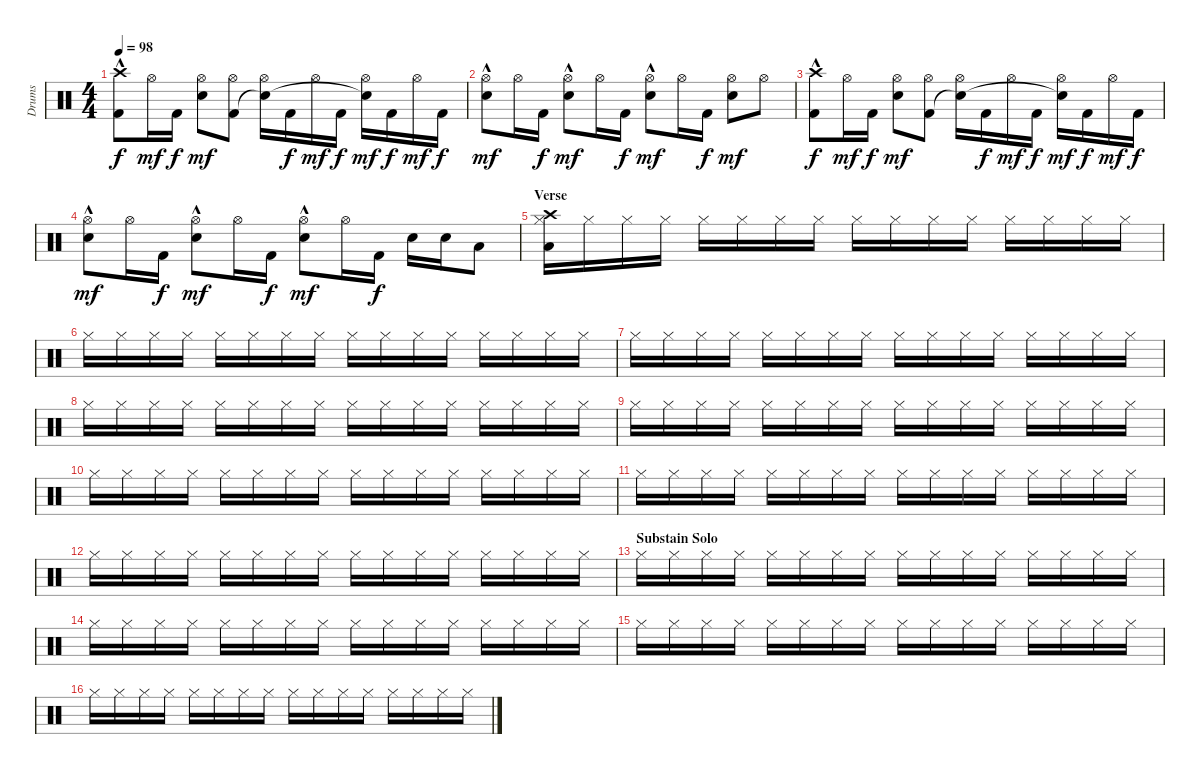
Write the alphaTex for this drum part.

\track ("Drums" "Drums") {instrument percussion}
\staff {score}
\articulation defaults
\ts (4 4)
\tempo 98
\clef neutral
\ks c
("Crash high (hit)" "Kick (hit) 2"{hac}).8{dy f} "Hi-Hat (open)".16{dy mf} "Kick (hit) 2".16{dy f} ("Hi-Hat (open)" "Electric Snare (hit)").8{dy mf} ("Hi-Hat (open)" "Kick (hit) 2").8 ("Hi-Hat (open)" "Snare (hit)"{t}).16 "Kick (hit) 2".16{dy f} "Hi-Hat (open)".16{dy mf} "Kick (hit) 2".16{dy f} ("Hi-Hat (open)" "Snare (hit)"{t}).16{dy mf} "Kick (hit) 2".16{dy f} "Hi-Hat (open)".16{dy mf} "Kick (hit) 2".16{dy f} |
("Hi-Hat (open)" "Electric Snare (hit)"{hac}).8{dy mf} "Hi-Hat (open)".16 "Kick (hit) 2".16{dy f} ("Hi-Hat (open)" "Electric Snare (hit)"{hac}).8{dy mf} "Hi-Hat (open)".16 "Kick (hit) 2".16{dy f} ("Hi-Hat (open)" "Electric Snare (hit)"{hac}).8{dy mf} "Hi-Hat (open)".16 "Kick (hit) 2".16{dy f} ("Hi-Hat (open)" "Electric Snare (hit)").8{dy mf} "Hi-Hat (open)".8 |
("Crash high (hit)" "Kick (hit) 2"{hac}).8{dy f} "Hi-Hat (open)".16{dy mf} "Kick (hit) 2".16{dy f} ("Hi-Hat (open)" "Electric Snare (hit)").8{dy mf} ("Hi-Hat (open)" "Kick (hit) 2").8 ("Hi-Hat (open)" "Snare (hit)"{t}).16 "Kick (hit) 2".16{dy f} "Hi-Hat (open)".16{dy mf} "Kick (hit) 2".16{dy f} ("Hi-Hat (open)" "Snare (hit)"{t}).16{dy mf} "Kick (hit) 2".16{dy f} "Hi-Hat (open)".16{dy mf} "Kick (hit) 2".16{dy f} |
("Hi-Hat (open)" "Electric Snare (hit)"{hac}).8{dy mf} "Hi-Hat (open)".16 "Kick (hit) 2".16{dy f} ("Hi-Hat (open)" "Electric Snare (hit)"{hac}).8{dy mf} "Hi-Hat (open)".16 "Kick (hit) 2".16{dy f} ("Hi-Hat (open)" "Electric Snare (hit)"{hac}).8{dy mf} "Hi-Hat (open)".16 "Kick (hit) 2".16{dy f} "Electric Snare (hit)".16 "Electric Snare (hit)".16 "Low Tom (hit)".8 |
\section ("" "Verse")
("Crash high (hit)" "Low Floor Tom (hit)" "Hi-Hat (closed)").16 "Hi-Hat (closed)".16 "Hi-Hat (closed)".16 "Hi-Hat (closed)".16 "Hi-Hat (closed)".16 "Hi-Hat (closed)".16 "Hi-Hat (closed)".16 "Hi-Hat (closed)".16 "Hi-Hat (closed)".16 "Hi-Hat (closed)".16 "Hi-Hat (closed)".16 "Hi-Hat (closed)".16 "Hi-Hat (closed)".16 "Hi-Hat (closed)".16 "Hi-Hat (closed)".16 "Hi-Hat (closed)".16 |
"Hi-Hat (closed)".16 "Hi-Hat (closed)".16 "Hi-Hat (closed)".16 "Hi-Hat (closed)".16 "Hi-Hat (closed)".16 "Hi-Hat (closed)".16 "Hi-Hat (closed)".16 "Hi-Hat (closed)".16 "Hi-Hat (closed)".16 "Hi-Hat (closed)".16 "Hi-Hat (closed)".16 "Hi-Hat (closed)".16 "Hi-Hat (closed)".16 "Hi-Hat (closed)".16 "Hi-Hat (closed)".16 "Hi-Hat (closed)".16 |
"Hi-Hat (closed)".16 "Hi-Hat (closed)".16 "Hi-Hat (closed)".16 "Hi-Hat (closed)".16 "Hi-Hat (closed)".16 "Hi-Hat (closed)".16 "Hi-Hat (closed)".16 "Hi-Hat (closed)".16 "Hi-Hat (closed)".16 "Hi-Hat (closed)".16 "Hi-Hat (closed)".16 "Hi-Hat (closed)".16 "Hi-Hat (closed)".16 "Hi-Hat (closed)".16 "Hi-Hat (closed)".16 "Hi-Hat (closed)".16 |
"Hi-Hat (closed)".16 "Hi-Hat (closed)".16 "Hi-Hat (closed)".16 "Hi-Hat (closed)".16 "Hi-Hat (closed)".16 "Hi-Hat (closed)".16 "Hi-Hat (closed)".16 "Hi-Hat (closed)".16 "Hi-Hat (closed)".16 "Hi-Hat (closed)".16 "Hi-Hat (closed)".16 "Hi-Hat (closed)".16 "Hi-Hat (closed)".16 "Hi-Hat (closed)".16 "Hi-Hat (closed)".16 "Hi-Hat (closed)".16 |
"Hi-Hat (closed)".16 "Hi-Hat (closed)".16 "Hi-Hat (closed)".16 "Hi-Hat (closed)".16 "Hi-Hat (closed)".16 "Hi-Hat (closed)".16 "Hi-Hat (closed)".16 "Hi-Hat (closed)".16 "Hi-Hat (closed)".16 "Hi-Hat (closed)".16 "Hi-Hat (closed)".16 "Hi-Hat (closed)".16 "Hi-Hat (closed)".16 "Hi-Hat (closed)".16 "Hi-Hat (closed)".16 "Hi-Hat (closed)".16 |
"Hi-Hat (closed)".16 "Hi-Hat (closed)".16 "Hi-Hat (closed)".16 "Hi-Hat (closed)".16 "Hi-Hat (closed)".16 "Hi-Hat (closed)".16 "Hi-Hat (closed)".16 "Hi-Hat (closed)".16 "Hi-Hat (closed)".16 "Hi-Hat (closed)".16 "Hi-Hat (closed)".16 "Hi-Hat (closed)".16 "Hi-Hat (closed)".16 "Hi-Hat (closed)".16 "Hi-Hat (closed)".16 "Hi-Hat (closed)".16 |
"Hi-Hat (closed)".16 "Hi-Hat (closed)".16 "Hi-Hat (closed)".16 "Hi-Hat (closed)".16 "Hi-Hat (closed)".16 "Hi-Hat (closed)".16 "Hi-Hat (closed)".16 "Hi-Hat (closed)".16 "Hi-Hat (closed)".16 "Hi-Hat (closed)".16 "Hi-Hat (closed)".16 "Hi-Hat (closed)".16 "Hi-Hat (closed)".16 "Hi-Hat (closed)".16 "Hi-Hat (closed)".16 "Hi-Hat (closed)".16 |
"Hi-Hat (closed)".16 "Hi-Hat (closed)".16 "Hi-Hat (closed)".16 "Hi-Hat (closed)".16 "Hi-Hat (closed)".16 "Hi-Hat (closed)".16 "Hi-Hat (closed)".16 "Hi-Hat (closed)".16 "Hi-Hat (closed)".16 "Hi-Hat (closed)".16 "Hi-Hat (closed)".16 "Hi-Hat (closed)".16 "Hi-Hat (closed)".16 "Hi-Hat (closed)".16 "Hi-Hat (closed)".16 "Hi-Hat (closed)".16 |
\section ("" "Substain Solo")
"Hi-Hat (closed)".16 "Hi-Hat (closed)".16 "Hi-Hat (closed)".16 "Hi-Hat (closed)".16 "Hi-Hat (closed)".16 "Hi-Hat (closed)".16 "Hi-Hat (closed)".16 "Hi-Hat (closed)".16 "Hi-Hat (closed)".16 "Hi-Hat (closed)".16 "Hi-Hat (closed)".16 "Hi-Hat (closed)".16 "Hi-Hat (closed)".16 "Hi-Hat (closed)".16 "Hi-Hat (closed)".16 "Hi-Hat (closed)".16 |
"Hi-Hat (closed)".16 "Hi-Hat (closed)".16 "Hi-Hat (closed)".16 "Hi-Hat (closed)".16 "Hi-Hat (closed)".16 "Hi-Hat (closed)".16 "Hi-Hat (closed)".16 "Hi-Hat (closed)".16 "Hi-Hat (closed)".16 "Hi-Hat (closed)".16 "Hi-Hat (closed)".16 "Hi-Hat (closed)".16 "Hi-Hat (closed)".16 "Hi-Hat (closed)".16 "Hi-Hat (closed)".16 "Hi-Hat (closed)".16 |
"Hi-Hat (closed)".16 "Hi-Hat (closed)".16 "Hi-Hat (closed)".16 "Hi-Hat (closed)".16 "Hi-Hat (closed)".16 "Hi-Hat (closed)".16 "Hi-Hat (closed)".16 "Hi-Hat (closed)".16 "Hi-Hat (closed)".16 "Hi-Hat (closed)".16 "Hi-Hat (closed)".16 "Hi-Hat (closed)".16 "Hi-Hat (closed)".16 "Hi-Hat (closed)".16 "Hi-Hat (closed)".16 "Hi-Hat (closed)".16 |
"Hi-Hat (closed)".16 "Hi-Hat (closed)".16 "Hi-Hat (closed)".16 "Hi-Hat (closed)".16 "Hi-Hat (closed)".16 "Hi-Hat (closed)".16 "Hi-Hat (closed)".16 "Hi-Hat (closed)".16 "Hi-Hat (closed)".16 "Hi-Hat (closed)".16 "Hi-Hat (closed)".16 "Hi-Hat (closed)".16 "Hi-Hat (closed)".16 "Hi-Hat (closed)".16 "Hi-Hat (closed)".16 "Hi-Hat (closed)".16
